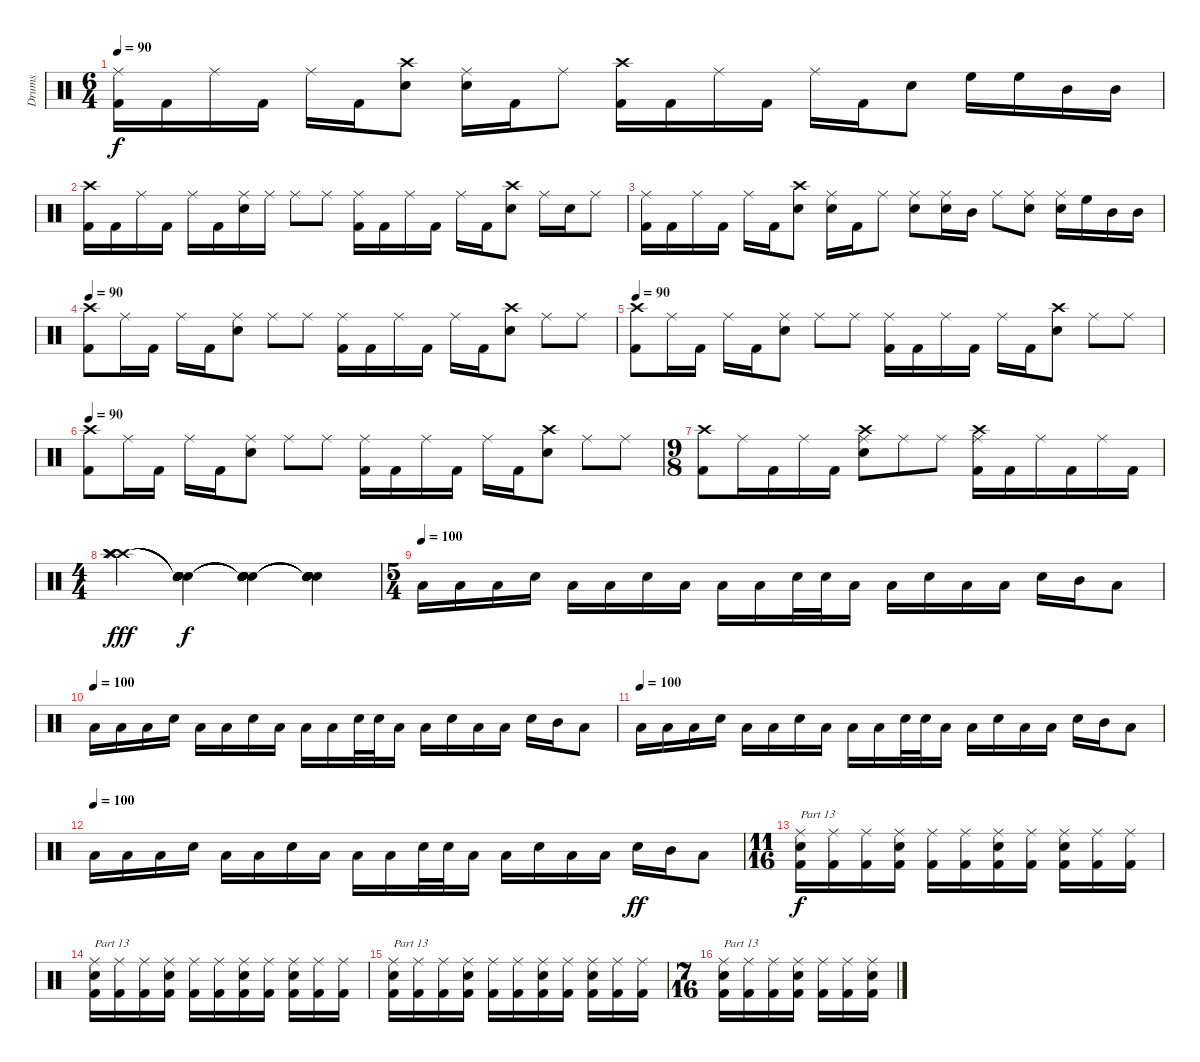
\track ("Drums" "Drums") {instrument percussion}
\staff {score}
\articulation defaults
\ts (6 4)
\tempo 90
\clef neutral
\ks c
("Ride (middle)" "Kick (hit) 2").16{dy f} "Kick (hit) 2".16 "Ride (middle)".16 "Kick (hit) 2".16 "Ride (middle)".16 "Kick (hit) 2".16 ("Crash high (hit)" "Snare (hit) 2").8 ("Ride (middle)" "Snare (hit) 2").16 "Kick (hit) 2".16 "Ride (middle)".8 ("Crash high (hit)" "Kick (hit) 2").16 "Kick (hit) 2".16 "Ride (middle)".16 "Kick (hit) 2".16 "Ride (middle)".16 "Kick (hit) 2".16 "Snare (hit) 2".8 "High Floor Tom (hit)".16 "High Floor Tom (hit)".16 "Mid Tom (hit)".16 "Mid Tom (hit)".16 |
("Crash high (hit)" "Kick (hit) 2").16 "Kick (hit) 2".16 "Ride (middle)".16 "Kick (hit) 2".16 "Ride (middle)".16 "Kick (hit) 2".16 ("Ride (middle)" "Snare (hit) 2").16 "Ride (middle)".16 "Ride (middle)".8 "Ride (middle)".8 ("Ride (middle)" "Kick (hit) 2").16 "Kick (hit) 2".16 "Ride (middle)".16 "Kick (hit) 2".16 "Ride (middle)".16 "Kick (hit) 2".16 ("Crash high (hit)" "Snare (hit) 2").8 "Ride (middle)".16 "Snare (hit) 2".16 "Ride (middle)".8 |
("Ride (middle)" "Kick (hit) 2").16 "Kick (hit) 2".16 "Ride (middle)".16 "Kick (hit) 2".16 "Ride (middle)".16 "Kick (hit) 2".16 ("Crash high (hit)" "Snare (hit) 2").8 ("Ride (middle)" "Snare (hit) 2").16 "Kick (hit) 2".16 "Ride (middle)".8 ("Ride (middle)" "Snare (hit) 2").8 ("Ride (middle)" "Snare (hit) 2").16 "Mid Tom (hit)".16 "Ride (middle)".8 ("Ride (middle)" "Snare (hit) 2").8 ("Ride (middle)" "Snare (hit) 2").16 "High Floor Tom (hit)".16 "Mid Tom (hit)".16 "Mid Tom (hit)".16 |
\tempo 90
("Crash high (hit)" "Kick (hit) 2").8 "Ride (middle)".16 "Kick (hit) 2".16 "Ride (middle)".16 "Kick (hit) 2".16 ("Ride (middle)" "Snare (hit) 2").8 "Ride (middle)".8 "Ride (middle)".8 ("Ride (middle)" "Kick (hit) 2").16 "Kick (hit) 2".16 "Ride (middle)".16 "Kick (hit) 2".16 "Ride (middle)".16 "Kick (hit) 2".16 ("Crash high (hit)" "Snare (hit) 2").8 "Ride (middle)".8 "Ride (middle)".8 |
\tempo 90
("Crash high (hit)" "Kick (hit) 2").8 "Ride (middle)".16 "Kick (hit) 2".16 "Ride (middle)".16 "Kick (hit) 2".16 ("Ride (middle)" "Snare (hit) 2").8 "Ride (middle)".8 "Ride (middle)".8 ("Ride (middle)" "Kick (hit) 2").16 "Kick (hit) 2".16 "Ride (middle)".16 "Kick (hit) 2".16 "Ride (middle)".16 "Kick (hit) 2".16 ("Crash high (hit)" "Snare (hit) 2").8 "Ride (middle)".8 "Ride (middle)".8 |
\tempo 90
("Crash high (hit)" "Kick (hit) 2").8 "Ride (middle)".16 "Kick (hit) 2".16 "Ride (middle)".16 "Kick (hit) 2".16 ("Ride (middle)" "Snare (hit) 2").8 "Ride (middle)".8 "Ride (middle)".8 ("Ride (middle)" "Kick (hit) 2").16 "Kick (hit) 2".16 "Ride (middle)".16 "Kick (hit) 2".16 "Ride (middle)".16 "Kick (hit) 2".16 ("Crash high (hit)" "Snare (hit) 2").8 "Ride (middle)".8 "Ride (middle)".8 |
\ts (9 8)
("Crash high (hit)" "Kick (hit) 2").8 "Ride (middle)".16 "Kick (hit) 2".16 "Ride (middle)".16 "Kick (hit) 2".16 ("Crash high (hit)" "Ride (middle)" "Snare (hit) 2").8 "Ride (middle)".8 "Ride (middle)".8 ("Crash high (hit)" "Ride (middle)" "Kick (hit) 2").16 "Kick (hit) 2".16 "Ride (middle)".16 "Kick (hit) 2".16 "Ride (middle)".16 "Kick (hit) 2".16 |
\ts (4 4)
("Crash high (hit)" "Crash high (hit)" "Crash high (hit)" "Splash (hit)" "Splash (hit)" "Splash (hit)").4{dy fff} ("Snare (hit)"{t} "Snare (hit)"{t} "Snare (hit)"{t} "Snare (hit)"{t} "Snare (hit)"{t} "Snare (hit)"{t}).4{dy f} ("Snare (hit)"{t} "Snare (hit)"{t} "Snare (hit)"{t} "Snare (hit)"{t} "Snare (hit)"{t} "Snare (hit)"{t}).4 ("Snare (hit)"{t} "Snare (hit)"{t} "Snare (hit)"{t} "Snare (hit)"{t} "Snare (hit)"{t} "Snare (hit)"{t}).4 |
\ts (5 4)
\tempo (100)
"Low Floor Tom (hit)".16 "Low Floor Tom (hit)".16 "Low Floor Tom (hit)".16 "Snare (hit) 2".16 "Low Floor Tom (hit)".16 "Low Floor Tom (hit)".16 "Snare (hit) 2".16 "Low Floor Tom (hit)".16 "Low Floor Tom (hit)".16 "Low Floor Tom (hit)".16 "Snare (hit) 2".32 "Snare (hit) 2".32 "Low Floor Tom (hit)".16 "Low Floor Tom (hit)".16 "Snare (hit) 2".16 "Low Floor Tom (hit)".16 "Low Floor Tom (hit)".16 "Snare (hit) 2".16 "Mid Tom (hit)".16 "Low Floor Tom (hit)".8 |
\tempo (100)
"Low Floor Tom (hit)".16 "Low Floor Tom (hit)".16 "Low Floor Tom (hit)".16 "Snare (hit) 2".16 "Low Floor Tom (hit)".16 "Low Floor Tom (hit)".16 "Snare (hit) 2".16 "Low Floor Tom (hit)".16 "Low Floor Tom (hit)".16 "Low Floor Tom (hit)".16 "Snare (hit) 2".32 "Snare (hit) 2".32 "Low Floor Tom (hit)".16 "Low Floor Tom (hit)".16 "Snare (hit) 2".16 "Low Floor Tom (hit)".16 "Low Floor Tom (hit)".16 "Snare (hit) 2".16 "Mid Tom (hit)".16 "Low Floor Tom (hit)".8 |
\tempo (100)
"Low Floor Tom (hit)".16 "Low Floor Tom (hit)".16 "Low Floor Tom (hit)".16 "Snare (hit) 2".16 "Low Floor Tom (hit)".16 "Low Floor Tom (hit)".16 "Snare (hit) 2".16 "Low Floor Tom (hit)".16 "Low Floor Tom (hit)".16 "Low Floor Tom (hit)".16 "Snare (hit) 2".32 "Snare (hit) 2".32 "Low Floor Tom (hit)".16 "Low Floor Tom (hit)".16 "Snare (hit) 2".16 "Low Floor Tom (hit)".16 "Low Floor Tom (hit)".16 "Snare (hit) 2".16 "Mid Tom (hit)".16 "Low Floor Tom (hit)".8 |
\tempo (100)
"Low Floor Tom (hit)".16 "Low Floor Tom (hit)".16 "Low Floor Tom (hit)".16 "Snare (hit) 2".16 "Low Floor Tom (hit)".16 "Low Floor Tom (hit)".16 "Snare (hit) 2".16 "Low Floor Tom (hit)".16 "Low Floor Tom (hit)".16 "Low Floor Tom (hit)".16 "Snare (hit) 2".32 "Snare (hit) 2".32 "Low Floor Tom (hit)".16 "Low Floor Tom (hit)".16 "Snare (hit) 2".16 "Low Floor Tom (hit)".16 "Low Floor Tom (hit)".16 "Snare (hit) 2".16{dy ff} "Mid Tom (hit)".16 "Low Floor Tom (hit)".8 |
\ts (11 16)
("Ride (middle)" "Snare (hit) 2" "Kick (hit) 2").16{txt "Part 13" dy f} ("Ride (middle)" "Kick (hit) 2").16 ("Ride (middle)" "Kick (hit) 2").16 ("Ride (middle)" "Snare (hit) 2" "Kick (hit) 2").16 ("Ride (middle)" "Kick (hit) 2").16 ("Ride (middle)" "Kick (hit) 2").16 ("Ride (middle)" "Snare (hit) 2" "Kick (hit) 2").16 ("Ride (middle)" "Kick (hit) 2").16 ("Ride (middle)" "Snare (hit) 2" "Kick (hit) 2").16 ("Ride (middle)" "Kick (hit) 2").16 ("Ride (middle)" "Kick (hit) 2").16 |
("Ride (middle)" "Snare (hit) 2" "Kick (hit) 2").16{txt "Part 13"} ("Ride (middle)" "Kick (hit) 2").16 ("Ride (middle)" "Kick (hit) 2").16 ("Ride (middle)" "Snare (hit) 2" "Kick (hit) 2").16 ("Ride (middle)" "Kick (hit) 2").16 ("Ride (middle)" "Kick (hit) 2").16 ("Ride (middle)" "Snare (hit) 2" "Kick (hit) 2").16 ("Ride (middle)" "Kick (hit) 2").16 ("Ride (middle)" "Snare (hit) 2" "Kick (hit) 2").16 ("Ride (middle)" "Kick (hit) 2").16 ("Ride (middle)" "Kick (hit) 2").16 |
("Ride (middle)" "Snare (hit) 2" "Kick (hit) 2").16{txt "Part 13"} ("Ride (middle)" "Kick (hit) 2").16 ("Ride (middle)" "Kick (hit) 2").16 ("Ride (middle)" "Snare (hit) 2" "Kick (hit) 2").16 ("Ride (middle)" "Kick (hit) 2").16 ("Ride (middle)" "Kick (hit) 2").16 ("Ride (middle)" "Snare (hit) 2" "Kick (hit) 2").16 ("Ride (middle)" "Kick (hit) 2").16 ("Ride (middle)" "Snare (hit) 2" "Kick (hit) 2").16 ("Ride (middle)" "Kick (hit) 2").16 ("Ride (middle)" "Kick (hit) 2").16 |
\ts (7 16)
("Ride (middle)" "Snare (hit) 2" "Kick (hit) 2").16{txt "Part 13"} ("Ride (middle)" "Kick (hit) 2").16 ("Ride (middle)" "Kick (hit) 2").16 ("Ride (middle)" "Snare (hit) 2" "Kick (hit) 2").16 ("Ride (middle)" "Kick (hit) 2").16 ("Ride (middle)" "Kick (hit) 2").16 ("Ride (middle)" "Snare (hit) 2" "Kick (hit) 2").16
